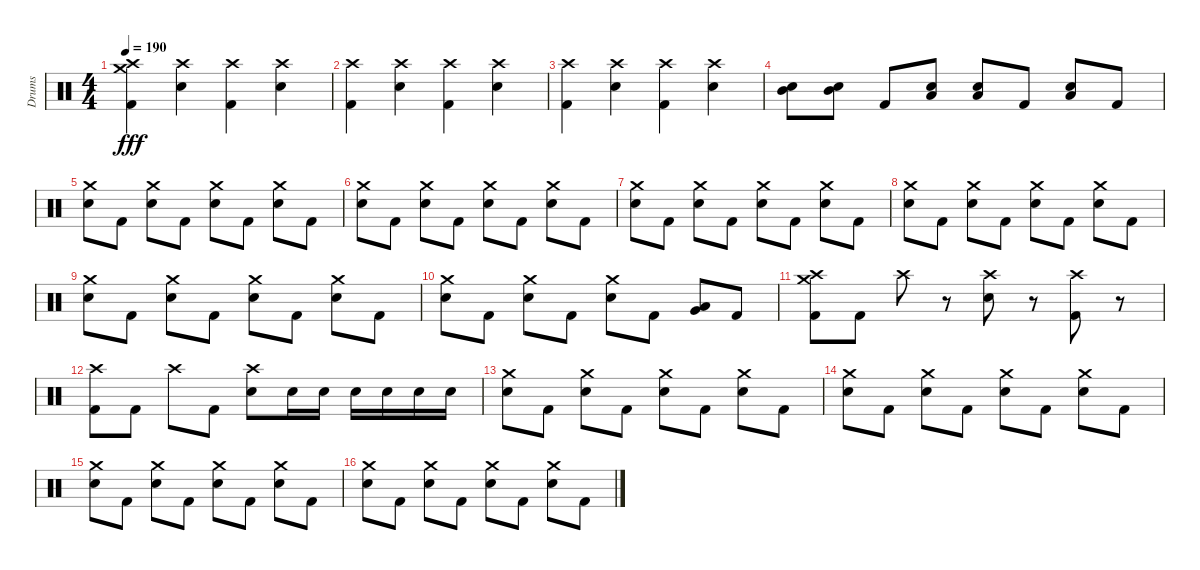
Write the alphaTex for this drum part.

\track ("Drums" "Drums") {instrument percussion}
\staff {score}
\articulation defaults
\ts (4 4)
\tempo 190
\clef neutral
\ks c
("Crash high (hit)" "Crash medium (hit)" "Kick (hit) 2").4{dy fff} ("Crash high (hit)" "Snare (hit) 2").4 ("Crash high (hit)" "Kick (hit) 2").4 ("Crash high (hit)" "Snare (hit) 2").4 |
("Crash high (hit)" "Kick (hit) 2").4 ("Crash high (hit)" "Snare (hit) 2").4 ("Crash high (hit)" "Kick (hit) 2").4 ("Crash high (hit)" "Snare (hit) 2").4 |
("Crash high (hit)" "Kick (hit) 2").4 ("Crash high (hit)" "Snare (hit) 2").4 ("Crash high (hit)" "Kick (hit) 2").4 ("Crash high (hit)" "Snare (hit) 2").4 |
("Mid Tom (hit)" "Snare (hit) 2").8 ("Mid Tom (hit)" "Snare (hit) 2").8 "Kick (hit) 2".8 ("Low Tom (hit)" "Snare (hit) 2").8 ("Low Tom (hit)" "Snare (hit) 2").8 "Kick (hit) 2".8 ("Low Floor Tom (hit)" "Snare (hit) 2").8 "Kick (hit) 2".8 |
("Crash medium (hit)" "Electric Snare (hit)").8 "Kick (hit) 2".8 ("Crash medium (hit)" "Electric Snare (hit)").8 "Kick (hit) 2".8 ("Crash medium (hit)" "Electric Snare (hit)").8 "Kick (hit) 2".8 ("Crash medium (hit)" "Electric Snare (hit)").8 "Kick (hit) 2".8 |
("Crash medium (hit)" "Electric Snare (hit)").8 "Kick (hit) 2".8 ("Crash medium (hit)" "Electric Snare (hit)").8 "Kick (hit) 2".8 ("Crash medium (hit)" "Electric Snare (hit)").8 "Kick (hit) 2".8 ("Crash medium (hit)" "Electric Snare (hit)").8 "Kick (hit) 2".8 |
("Crash medium (hit)" "Electric Snare (hit)").8 "Kick (hit) 2".8 ("Crash medium (hit)" "Electric Snare (hit)").8 "Kick (hit) 2".8 ("Crash medium (hit)" "Electric Snare (hit)").8 "Kick (hit) 2".8 ("Crash medium (hit)" "Electric Snare (hit)").8 "Kick (hit) 2".8 |
("Crash medium (hit)" "Electric Snare (hit)").8 "Kick (hit) 2".8 ("Crash medium (hit)" "Electric Snare (hit)").8 "Kick (hit) 2".8 ("Crash medium (hit)" "Electric Snare (hit)").8 "Kick (hit) 2".8 ("Crash medium (hit)" "Electric Snare (hit)").8 "Kick (hit) 2".8 |
("Crash medium (hit)" "Electric Snare (hit)").8 "Kick (hit) 2".8 ("Crash medium (hit)" "Electric Snare (hit)").8 "Kick (hit) 2".8 ("Crash medium (hit)" "Electric Snare (hit)").8 "Kick (hit) 2".8 ("Crash medium (hit)" "Electric Snare (hit)").8 "Kick (hit) 2".8 |
("Crash medium (hit)" "Electric Snare (hit)").8 "Kick (hit) 2".8 ("Crash medium (hit)" "Electric Snare (hit)").8 "Kick (hit) 2".8 ("Crash medium (hit)" "Electric Snare (hit)").8 "Kick (hit) 2".8 ("Very Low Tom (hit)" "Low Floor Tom (hit)").8 "Kick (hit) 2".8 |
("Crash high (hit)" "Crash medium (hit)" "Kick (hit) 2").8 "Kick (hit) 2".8 "Crash high (hit)".8 r.8 ("Crash high (hit)" "Electric Snare (hit)").8 r.8 ("Crash high (hit)" "Kick (hit) 2").8 r.8 |
("Crash high (hit)" "Kick (hit) 2").8 "Kick (hit) 2".8 "Crash high (hit)".8 "Kick (hit) 2".8 ("Crash high (hit)" "Electric Snare (hit)").8 "Electric Snare (hit)".16 "Electric Snare (hit)".16 "Electric Snare (hit)".16 "Electric Snare (hit)".16 "Electric Snare (hit)".16 "Electric Snare (hit)".16 |
("Crash medium (hit)" "Electric Snare (hit)").8 "Kick (hit) 2".8 ("Crash medium (hit)" "Electric Snare (hit)").8 "Kick (hit) 2".8 ("Crash medium (hit)" "Electric Snare (hit)").8 "Kick (hit) 2".8 ("Crash medium (hit)" "Electric Snare (hit)").8 "Kick (hit) 2".8 |
("Crash medium (hit)" "Electric Snare (hit)").8 "Kick (hit) 2".8 ("Crash medium (hit)" "Electric Snare (hit)").8 "Kick (hit) 2".8 ("Crash medium (hit)" "Electric Snare (hit)").8 "Kick (hit) 2".8 ("Crash medium (hit)" "Electric Snare (hit)").8 "Kick (hit) 2".8 |
("Crash medium (hit)" "Electric Snare (hit)").8 "Kick (hit) 2".8 ("Crash medium (hit)" "Electric Snare (hit)").8 "Kick (hit) 2".8 ("Crash medium (hit)" "Electric Snare (hit)").8 "Kick (hit) 2".8 ("Crash medium (hit)" "Electric Snare (hit)").8 "Kick (hit) 2".8 |
("Crash medium (hit)" "Electric Snare (hit)").8 "Kick (hit) 2".8 ("Crash medium (hit)" "Electric Snare (hit)").8 "Kick (hit) 2".8 ("Crash medium (hit)" "Electric Snare (hit)").8 "Kick (hit) 2".8 ("Crash medium (hit)" "Electric Snare (hit)").8 "Kick (hit) 2".8
